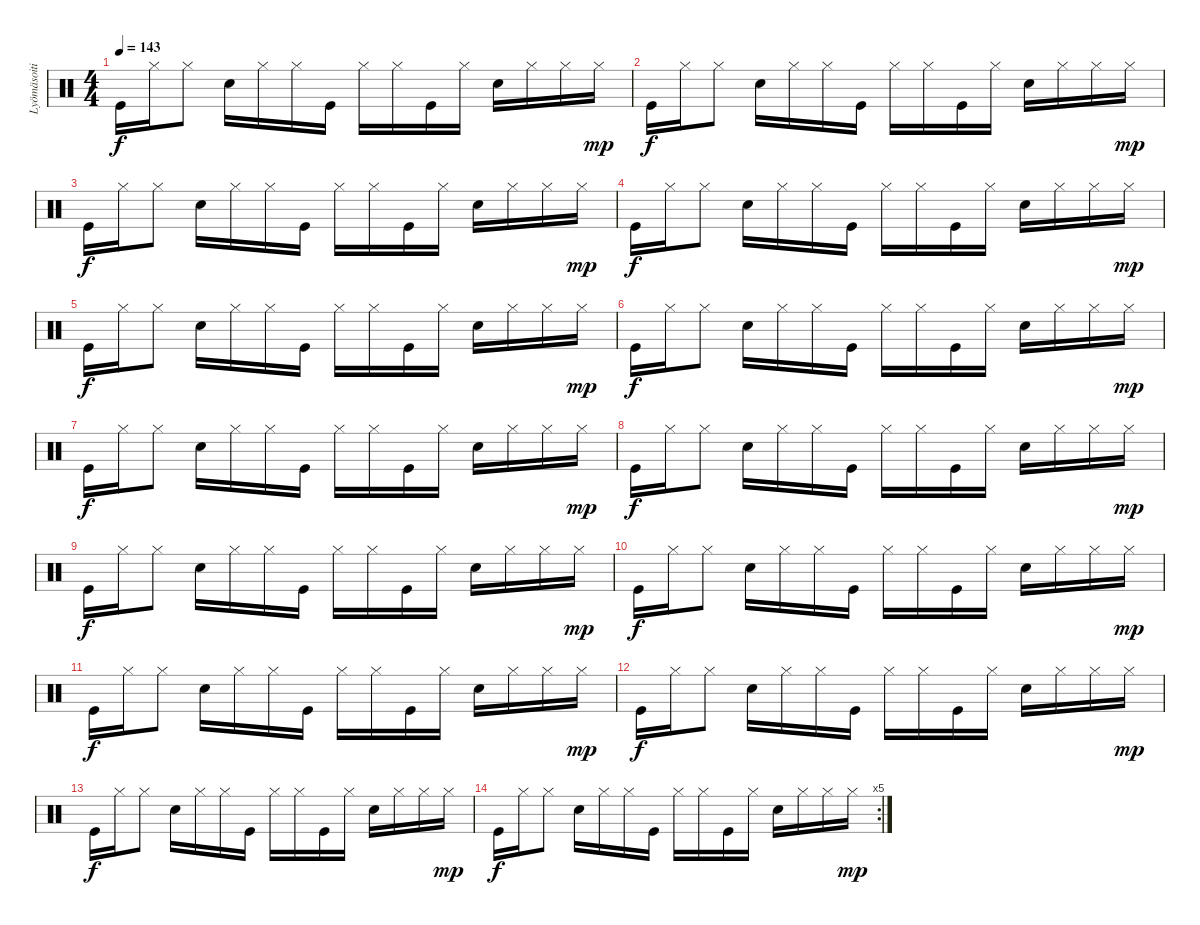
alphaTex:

\track ("Lyömäsoitin" "Lyömäsoiti") {instrument percussion}
\staff {score}
\articulation defaults
\ts (4 4)
\tempo 143
\clef neutral
\ks c "Kick (hit)".16{dy f} "Hi-Hat (closed)".16 "Hi-Hat (closed)".8 "Snare (hit) 2".16 "Hi-Hat (closed)".16 "Hi-Hat (closed)".16 "Kick (hit)".16 "Hi-Hat (closed)".16 "Hi-Hat (closed)".16 "Kick (hit)".16 "Hi-Hat (closed)".16 "Snare (hit) 2".16 "Hi-Hat (closed)".16 "Hi-Hat (closed)".16 "Hi-Hat (closed)".16{dy mp}
|
"Kick (hit)".16{dy f} "Hi-Hat (closed)".16 "Hi-Hat (closed)".8 "Snare (hit) 2".16 "Hi-Hat (closed)".16 "Hi-Hat (closed)".16 "Kick (hit)".16 "Hi-Hat (closed)".16 "Hi-Hat (closed)".16 "Kick (hit)".16 "Hi-Hat (closed)".16 "Snare (hit) 2".16 "Hi-Hat (closed)".16 "Hi-Hat (closed)".16 "Hi-Hat (closed)".16{dy mp} |
"Kick (hit)".16{dy f} "Hi-Hat (closed)".16 "Hi-Hat (closed)".8 "Snare (hit) 2".16 "Hi-Hat (closed)".16 "Hi-Hat (closed)".16 "Kick (hit)".16 "Hi-Hat (closed)".16 "Hi-Hat (closed)".16 "Kick (hit)".16 "Hi-Hat (closed)".16 "Snare (hit) 2".16 "Hi-Hat (closed)".16 "Hi-Hat (closed)".16 "Hi-Hat (closed)".16{dy mp} |
"Kick (hit)".16{dy f} "Hi-Hat (closed)".16 "Hi-Hat (closed)".8 "Snare (hit) 2".16 "Hi-Hat (closed)".16 "Hi-Hat (closed)".16 "Kick (hit)".16 "Hi-Hat (closed)".16 "Hi-Hat (closed)".16 "Kick (hit)".16 "Hi-Hat (closed)".16 "Snare (hit) 2".16 "Hi-Hat (closed)".16 "Hi-Hat (closed)".16 "Hi-Hat (closed)".16{dy mp} |
"Kick (hit)".16{dy f} "Hi-Hat (closed)".16 "Hi-Hat (closed)".8 "Snare (hit) 2".16 "Hi-Hat (closed)".16 "Hi-Hat (closed)".16 "Kick (hit)".16 "Hi-Hat (closed)".16 "Hi-Hat (closed)".16 "Kick (hit)".16 "Hi-Hat (closed)".16 "Snare (hit) 2".16 "Hi-Hat (closed)".16 "Hi-Hat (closed)".16 "Hi-Hat (closed)".16{dy mp} |
"Kick (hit)".16{dy f} "Hi-Hat (closed)".16 "Hi-Hat (closed)".8 "Snare (hit) 2".16 "Hi-Hat (closed)".16 "Hi-Hat (closed)".16 "Kick (hit)".16 "Hi-Hat (closed)".16 "Hi-Hat (closed)".16 "Kick (hit)".16 "Hi-Hat (closed)".16 "Snare (hit) 2".16 "Hi-Hat (closed)".16 "Hi-Hat (closed)".16 "Hi-Hat (closed)".16{dy mp} |
"Kick (hit)".16{dy f} "Hi-Hat (closed)".16 "Hi-Hat (closed)".8 "Snare (hit) 2".16 "Hi-Hat (closed)".16 "Hi-Hat (closed)".16 "Kick (hit)".16 "Hi-Hat (closed)".16 "Hi-Hat (closed)".16 "Kick (hit)".16 "Hi-Hat (closed)".16 "Snare (hit) 2".16 "Hi-Hat (closed)".16 "Hi-Hat (closed)".16 "Hi-Hat (closed)".16{dy mp} |
"Kick (hit)".16{dy f} "Hi-Hat (closed)".16 "Hi-Hat (closed)".8 "Snare (hit) 2".16 "Hi-Hat (closed)".16 "Hi-Hat (closed)".16 "Kick (hit)".16 "Hi-Hat (closed)".16 "Hi-Hat (closed)".16 "Kick (hit)".16 "Hi-Hat (closed)".16 "Snare (hit) 2".16 "Hi-Hat (closed)".16 "Hi-Hat (closed)".16 "Hi-Hat (closed)".16{dy mp} |
"Kick (hit)".16{dy f} "Hi-Hat (closed)".16 "Hi-Hat (closed)".8 "Snare (hit) 2".16 "Hi-Hat (closed)".16 "Hi-Hat (closed)".16 "Kick (hit)".16 "Hi-Hat (closed)".16 "Hi-Hat (closed)".16 "Kick (hit)".16 "Hi-Hat (closed)".16 "Snare (hit) 2".16 "Hi-Hat (closed)".16 "Hi-Hat (closed)".16 "Hi-Hat (closed)".16{dy mp} |
"Kick (hit)".16{dy f} "Hi-Hat (closed)".16 "Hi-Hat (closed)".8 "Snare (hit) 2".16 "Hi-Hat (closed)".16 "Hi-Hat (closed)".16 "Kick (hit)".16 "Hi-Hat (closed)".16 "Hi-Hat (closed)".16 "Kick (hit)".16 "Hi-Hat (closed)".16 "Snare (hit) 2".16 "Hi-Hat (closed)".16 "Hi-Hat (closed)".16 "Hi-Hat (closed)".16{dy mp} |
"Kick (hit)".16{dy f} "Hi-Hat (closed)".16 "Hi-Hat (closed)".8 "Snare (hit) 2".16 "Hi-Hat (closed)".16 "Hi-Hat (closed)".16 "Kick (hit)".16 "Hi-Hat (closed)".16 "Hi-Hat (closed)".16 "Kick (hit)".16 "Hi-Hat (closed)".16 "Snare (hit) 2".16 "Hi-Hat (closed)".16 "Hi-Hat (closed)".16 "Hi-Hat (closed)".16{dy mp} |
"Kick (hit)".16{dy f} "Hi-Hat (closed)".16 "Hi-Hat (closed)".8 "Snare (hit) 2".16 "Hi-Hat (closed)".16 "Hi-Hat (closed)".16 "Kick (hit)".16 "Hi-Hat (closed)".16 "Hi-Hat (closed)".16 "Kick (hit)".16 "Hi-Hat (closed)".16 "Snare (hit) 2".16 "Hi-Hat (closed)".16 "Hi-Hat (closed)".16 "Hi-Hat (closed)".16{dy mp} |
"Kick (hit)".16{dy f} "Hi-Hat (closed)".16 "Hi-Hat (closed)".8 "Snare (hit) 2".16 "Hi-Hat (closed)".16 "Hi-Hat (closed)".16 "Kick (hit)".16 "Hi-Hat (closed)".16 "Hi-Hat (closed)".16 "Kick (hit)".16 "Hi-Hat (closed)".16 "Snare (hit) 2".16 "Hi-Hat (closed)".16 "Hi-Hat (closed)".16 "Hi-Hat (closed)".16{dy mp} |
\rc 5 "Kick (hit)".16{dy f} "Hi-Hat (closed)".16 "Hi-Hat (closed)".8 "Snare (hit) 2".16 "Hi-Hat (closed)".16 "Hi-Hat (closed)".16 "Kick (hit)".16 "Hi-Hat (closed)".16 "Hi-Hat (closed)".16 "Kick (hit)".16 "Hi-Hat (closed)".16 "Snare (hit) 2".16 "Hi-Hat (closed)".16 "Hi-Hat (closed)".16 "Hi-Hat (closed)".16{dy mp}
